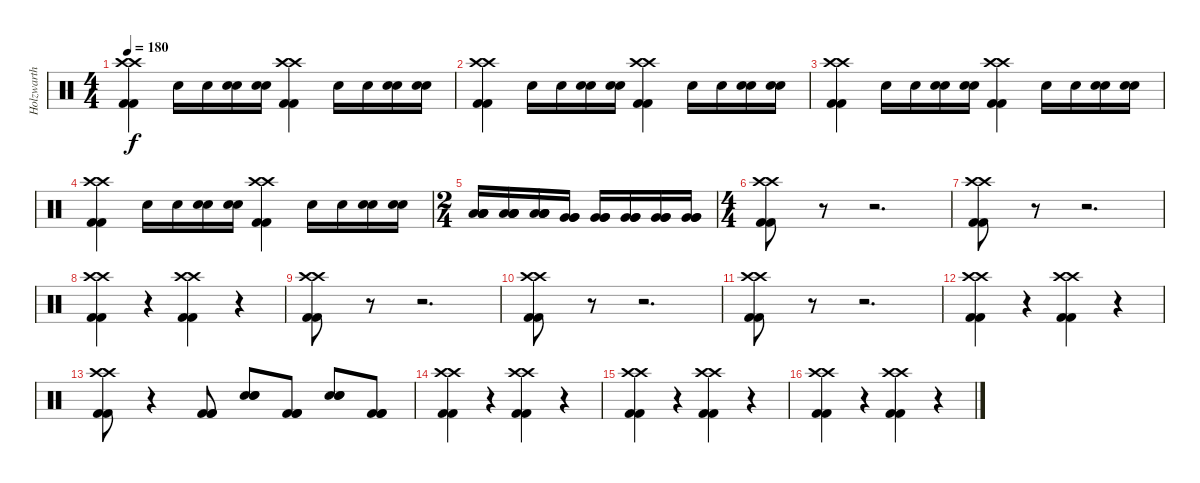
\track ("Holzwarth" "Holzwarth") {instrument percussion}
\staff {score}
\articulation defaults
\ts (4 4)
\tempo 180
\clef neutral
\ks c
("Kick (hit) 2" "Kick (hit) 2" "Crash high (hit)" "Crash high (hit)").4{dy f} "Snare (hit) 2".16 "Snare (hit) 2".16 ("Snare (hit) 2" "Snare (hit) 2").16 ("Snare (hit) 2" "Snare (hit) 2").16 ("Kick (hit) 2" "Kick (hit) 2" "Crash high (hit)" "Crash high (hit)").4 "Snare (hit) 2".16 "Snare (hit) 2".16 ("Snare (hit) 2" "Snare (hit) 2").16 ("Snare (hit) 2" "Snare (hit) 2").16 |
("Kick (hit) 2" "Kick (hit) 2" "Crash high (hit)" "Crash high (hit)").4 "Snare (hit) 2".16 "Snare (hit) 2".16 ("Snare (hit) 2" "Snare (hit) 2").16 ("Snare (hit) 2" "Snare (hit) 2").16 ("Kick (hit) 2" "Kick (hit) 2" "Crash high (hit)" "Crash high (hit)").4 "Snare (hit) 2".16 "Snare (hit) 2".16 ("Snare (hit) 2" "Snare (hit) 2").16 ("Snare (hit) 2" "Snare (hit) 2").16 |
("Kick (hit) 2" "Kick (hit) 2" "Crash high (hit)" "Crash high (hit)").4 "Snare (hit) 2".16 "Snare (hit) 2".16 ("Snare (hit) 2" "Snare (hit) 2").16 ("Snare (hit) 2" "Snare (hit) 2").16 ("Kick (hit) 2" "Kick (hit) 2" "Crash high (hit)" "Crash high (hit)").4 "Snare (hit) 2".16 "Snare (hit) 2".16 ("Snare (hit) 2" "Snare (hit) 2").16 ("Snare (hit) 2" "Snare (hit) 2").16 |
("Kick (hit) 2" "Kick (hit) 2" "Crash high (hit)" "Crash high (hit)").4 "Snare (hit) 2".16 "Snare (hit) 2".16 ("Snare (hit) 2" "Snare (hit) 2").16 ("Snare (hit) 2" "Snare (hit) 2").16 ("Kick (hit) 2" "Kick (hit) 2" "Crash high (hit)" "Crash high (hit)").4 "Snare (hit) 2".16 "Snare (hit) 2".16 ("Snare (hit) 2" "Snare (hit) 2").16 ("Snare (hit) 2" "Snare (hit) 2").16 |
\ts (2 4)
("Low Floor Tom (hit)" "Low Floor Tom (hit)" "Low Floor Tom (hit)" "Low Floor Tom (hit)").16 ("Low Floor Tom (hit)" "Low Floor Tom (hit)" "Low Floor Tom (hit)" "Low Floor Tom (hit)").16 ("Low Floor Tom (hit)" "Low Floor Tom (hit)" "Low Floor Tom (hit)" "Low Floor Tom (hit)").16 ("Very Low Tom (hit)" "Very Low Tom (hit)" "Very Low Tom (hit)").16 ("Very Low Tom (hit)" "Very Low Tom (hit)" "Very Low Tom (hit)").16 ("Very Low Tom (hit)" "Very Low Tom (hit)" "Very Low Tom (hit)").16 ("Very Low Tom (hit)" "Very Low Tom (hit)" "Very Low Tom (hit)").16 ("Very Low Tom (hit)" "Very Low Tom (hit)" "Very Low Tom (hit)").16 |
\ts (4 4)
("Kick (hit) 2" "Kick (hit) 2" "Crash high (hit)" "Crash high (hit)").8 r.8 r.2{d} |
("Kick (hit) 2" "Kick (hit) 2" "Crash high (hit)" "Crash high (hit)").8 r.8 r.2{d} |
("Kick (hit) 2" "Kick (hit) 2" "Crash high (hit)" "Crash high (hit)").4 r.4 ("Kick (hit) 2" "Kick (hit) 2" "Crash high (hit)" "Crash high (hit)").4 r.4 |
("Kick (hit) 2" "Kick (hit) 2" "Crash high (hit)" "Crash high (hit)").8 r.8 r.2{d} |
("Kick (hit) 2" "Kick (hit) 2" "Crash high (hit)" "Crash high (hit)").8 r.8 r.2{d} |
("Kick (hit) 2" "Kick (hit) 2" "Crash high (hit)" "Crash high (hit)").8 r.8 r.2{d} |
("Kick (hit) 2" "Kick (hit) 2" "Crash high (hit)" "Crash high (hit)").4 r.4 ("Kick (hit) 2" "Kick (hit) 2" "Crash high (hit)" "Crash high (hit)").4 r.4 |
("Kick (hit) 2" "Kick (hit) 2" "Crash high (hit)" "Crash high (hit)").8 r.4 ("Kick (hit) 2" "Kick (hit) 2" "Kick (hit) 2").8 ("Snare (hit) 2" "Snare (hit) 2" "Snare (hit) 2").8 ("Kick (hit) 2" "Kick (hit) 2" "Kick (hit) 2").8 ("Snare (hit) 2" "Snare (hit) 2" "Snare (hit) 2").8 ("Kick (hit) 2" "Kick (hit) 2" "Kick (hit) 2").8 |
("Kick (hit) 2" "Kick (hit) 2" "Crash high (hit)" "Crash high (hit)").4 r.4 ("Kick (hit) 2" "Kick (hit) 2" "Crash high (hit)" "Crash high (hit)").4 r.4 |
("Kick (hit) 2" "Kick (hit) 2" "Crash high (hit)" "Crash high (hit)").4 r.4 ("Kick (hit) 2" "Kick (hit) 2" "Crash high (hit)" "Crash high (hit)").4 r.4 |
("Kick (hit) 2" "Kick (hit) 2" "Crash high (hit)" "Crash high (hit)").4 r.4 ("Kick (hit) 2" "Kick (hit) 2" "Crash high (hit)" "Crash high (hit)").4 r.4
